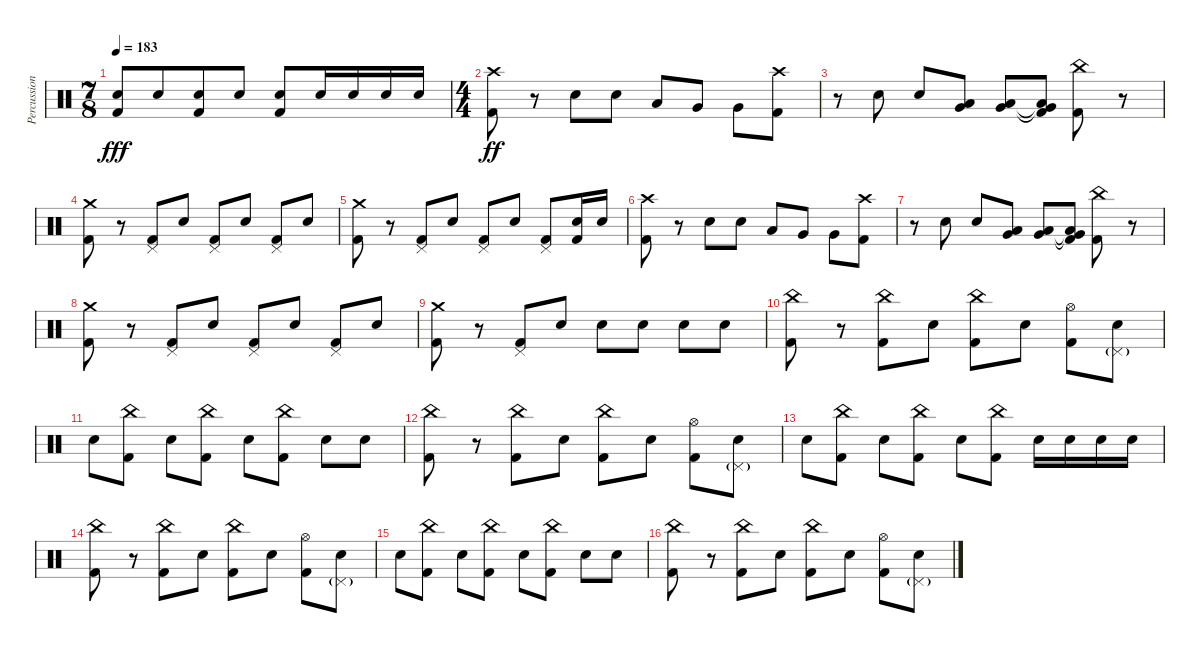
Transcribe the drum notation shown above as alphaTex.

\track ("Percussion" "Percussion") {instrument percussion}
\staff {score}
\articulation defaults
\ts (7 8)
\tempo 183
\clef neutral
\ks c
("Electric Snare (hit)" "Kick (hit) 2").8{dy fff} "Electric Snare (hit)".8 ("Electric Snare (hit)" "Kick (hit) 2").8 "Electric Snare (hit)".8 ("Electric Snare (hit)" "Kick (hit) 2").8 "Electric Snare (hit)".16 "Electric Snare (hit)".16 "Electric Snare (hit)".16 "Electric Snare (hit)".16 |
\ts (4 4)
("Crash high (hit)" "Kick (hit) 2").8{dy ff} r.8 "Electric Snare (hit)".8 "Electric Snare (hit)".8 "Low Tom (hit)".8 "Very Low Tom (hit)".8 "Very Low Tom (hit)".8 ("Crash high (hit)" "Kick (hit) 2").8 |
r.8 "Electric Snare (hit)".8 "Electric Snare (hit)".8 ("Very Low Tom (hit)" "Low Tom (hit)").8 ("Very Low Tom (hit)" "Low Tom (hit)").8 ("Very Low Tom (hit)"{t} "Low Tom (hit)"{t} "Kick (hit) 2").8 ("China (hit)" "Kick (hit) 2").8 r.8 |
("Crash medium (hit)" "Kick (hit) 2").8 r.8 ("Pedal Hi-Hat (hit)" "Kick (hit) 2").8 "Electric Snare (hit)".8 ("Pedal Hi-Hat (hit)" "Kick (hit) 2").8 "Electric Snare (hit)".8 ("Pedal Hi-Hat (hit)" "Kick (hit) 2").8 "Electric Snare (hit)".8 |
("Crash medium (hit)" "Kick (hit) 2").8 r.8 ("Pedal Hi-Hat (hit)" "Kick (hit) 2").8 "Electric Snare (hit)".8 ("Pedal Hi-Hat (hit)" "Kick (hit) 2").8 "Electric Snare (hit)".8 ("Pedal Hi-Hat (hit)" "Kick (hit) 2").8 ("Electric Snare (hit)" "Kick (hit) 2").16 "Electric Snare (hit)".16 |
("Crash high (hit)" "Kick (hit) 2").8 r.8 "Electric Snare (hit)".8 "Electric Snare (hit)".8 "Low Tom (hit)".8 "Very Low Tom (hit)".8 "Very Low Tom (hit)".8 ("Crash high (hit)" "Kick (hit) 2").8 |
r.8 "Electric Snare (hit)".8 "Electric Snare (hit)".8 ("Very Low Tom (hit)" "Low Tom (hit)").8 ("Very Low Tom (hit)" "Low Tom (hit)").8 ("Very Low Tom (hit)"{t} "Low Tom (hit)"{t} "Kick (hit) 2").8 ("China (hit)" "Kick (hit) 2").8 r.8 |
("Crash medium (hit)" "Kick (hit) 2").8 r.8 ("Pedal Hi-Hat (hit)" "Kick (hit) 2").8 "Electric Snare (hit)".8 ("Pedal Hi-Hat (hit)" "Kick (hit) 2").8 "Electric Snare (hit)".8 ("Pedal Hi-Hat (hit)" "Kick (hit) 2").8 "Electric Snare (hit)".8 |
("Crash medium (hit)" "Kick (hit) 2").8 r.8 ("Pedal Hi-Hat (hit)" "Kick (hit) 2").8 "Electric Snare (hit)".8 "Electric Snare (hit)".8 "Electric Snare (hit)".8 "Electric Snare (hit)".8 "Electric Snare (hit)".8 |
("China (hit)" "Kick (hit) 2").8 r.8 ("China (hit)" "Kick (hit) 2").8 "Electric Snare (hit)".8 ("China (hit)" "Kick (hit) 2").8 "Electric Snare (hit)".8 ("Hi-Hat (open)" "Kick (hit) 2").8 ("Pedal Hi-Hat (hit)"{g} "Electric Snare (hit)").8 |
"Electric Snare (hit)".8 ("China (hit)" "Kick (hit) 2").8 "Electric Snare (hit)".8 ("China (hit)" "Kick (hit) 2").8 "Electric Snare (hit)".8 ("China (hit)" "Kick (hit) 2").8 "Electric Snare (hit)".8 "Electric Snare (hit)".8 |
("China (hit)" "Kick (hit) 2").8 r.8 ("China (hit)" "Kick (hit) 2").8 "Electric Snare (hit)".8 ("China (hit)" "Kick (hit) 2").8 "Electric Snare (hit)".8 ("Hi-Hat (open)" "Kick (hit) 2").8 ("Pedal Hi-Hat (hit)"{g} "Electric Snare (hit)").8 |
"Electric Snare (hit)".8 ("China (hit)" "Kick (hit) 2").8 "Electric Snare (hit)".8 ("China (hit)" "Kick (hit) 2").8 "Electric Snare (hit)".8 ("China (hit)" "Kick (hit) 2").8 "Electric Snare (hit)".16 "Electric Snare (hit)".16 "Electric Snare (hit)".16 "Electric Snare (hit)".16 |
("China (hit)" "Kick (hit) 2").8 r.8 ("China (hit)" "Kick (hit) 2").8 "Electric Snare (hit)".8 ("China (hit)" "Kick (hit) 2").8 "Electric Snare (hit)".8 ("Hi-Hat (open)" "Kick (hit) 2").8 ("Pedal Hi-Hat (hit)"{g} "Electric Snare (hit)").8 |
"Electric Snare (hit)".8 ("China (hit)" "Kick (hit) 2").8 "Electric Snare (hit)".8 ("China (hit)" "Kick (hit) 2").8 "Electric Snare (hit)".8 ("China (hit)" "Kick (hit) 2").8 "Electric Snare (hit)".8 "Electric Snare (hit)".8 |
("China (hit)" "Kick (hit) 2").8 r.8 ("China (hit)" "Kick (hit) 2").8 "Electric Snare (hit)".8 ("China (hit)" "Kick (hit) 2").8 "Electric Snare (hit)".8 ("Hi-Hat (open)" "Kick (hit) 2").8 ("Pedal Hi-Hat (hit)"{g} "Electric Snare (hit)").8
